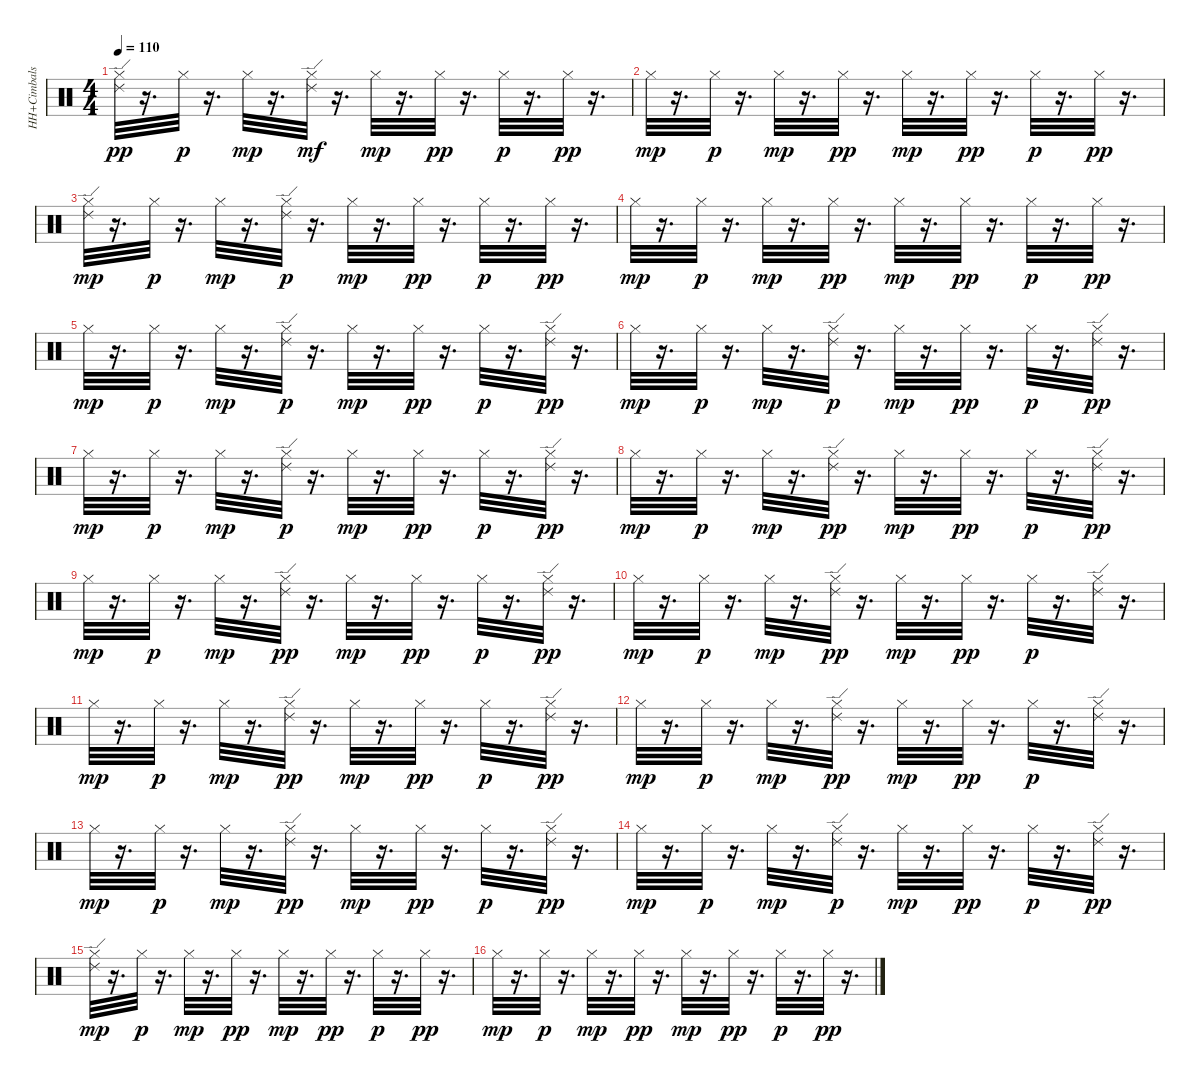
\track ("HH+Cimbals" "HH+Cimbals") {instrument percussion}
\staff {score}
\articulation defaults
\ts (4 4)
\tempo 110
\clef neutral
\ks c
("Hi-Hat (closed)" "Ride (edge) 2").32{dy pp} r.16{d} "Hi-Hat (closed)".32{dy p} r.16{d} "Hi-Hat (closed)".32{dy mp} r.16{d} ("Hi-Hat (closed)" "Ride (edge) 2").32{dy mf} r.16{d} "Hi-Hat (closed)".32{dy mp} r.16{d} "Hi-Hat (closed)".32{dy pp} r.16{d} "Hi-Hat (closed)".32{dy p} r.16{d} "Hi-Hat (closed)".32{dy pp} r.16{d} |
"Hi-Hat (closed)".32{dy mp} r.16{d} "Hi-Hat (closed)".32{dy p} r.16{d} "Hi-Hat (closed)".32{dy mp} r.16{d} "Hi-Hat (closed)".32{dy pp} r.16{d} "Hi-Hat (closed)".32{dy mp} r.16{d} "Hi-Hat (closed)".32{dy pp} r.16{d} "Hi-Hat (closed)".32{dy p} r.16{d} "Hi-Hat (closed)".32{dy pp} r.16{d} |
("Ride (edge) 2" "Hi-Hat (closed)").32{dy mp} r.16{d} "Hi-Hat (closed)".32{dy p} r.16{d} "Hi-Hat (closed)".32{dy mp} r.16{d} ("Hi-Hat (closed)" "Ride (edge) 2").32{dy p} r.16{d} "Hi-Hat (closed)".32{dy mp} r.16{d} "Hi-Hat (closed)".32{dy pp} r.16{d} "Hi-Hat (closed)".32{dy p} r.16{d} "Hi-Hat (closed)".32{dy pp} r.16{d} |
"Hi-Hat (closed)".32{dy mp} r.16{d} "Hi-Hat (closed)".32{dy p} r.16{d} "Hi-Hat (closed)".32{dy mp} r.16{d} "Hi-Hat (closed)".32{dy pp} r.16{d} "Hi-Hat (closed)".32{dy mp} r.16{d} "Hi-Hat (closed)".32{dy pp} r.16{d} "Hi-Hat (closed)".32{dy p} r.16{d} "Hi-Hat (closed)".32{dy pp} r.16{d} |
"Hi-Hat (closed)".32{dy mp} r.16{d} "Hi-Hat (closed)".32{dy p} r.16{d} "Hi-Hat (closed)".32{dy mp} r.16{d} ("Hi-Hat (closed)" "Ride (edge) 2").32{dy p} r.16{d} "Hi-Hat (closed)".32{dy mp} r.16{d} "Hi-Hat (closed)".32{dy pp} r.16{d} "Hi-Hat (closed)".32{dy p} r.16{d} ("Hi-Hat (closed)" "Ride (edge) 2").32{dy pp} r.16{d} |
"Hi-Hat (closed)".32{dy mp} r.16{d} "Hi-Hat (closed)".32{dy p} r.16{d} "Hi-Hat (closed)".32{dy mp} r.16{d} ("Hi-Hat (closed)" "Ride (edge) 2").32{dy p} r.16{d} "Hi-Hat (closed)".32{dy mp} r.16{d} "Hi-Hat (closed)".32{dy pp} r.16{d} "Hi-Hat (closed)".32{dy p} r.16{d} ("Hi-Hat (closed)" "Ride (edge) 2").32{dy pp} r.16{d} |
"Hi-Hat (closed)".32{dy mp} r.16{d} "Hi-Hat (closed)".32{dy p} r.16{d} "Hi-Hat (closed)".32{dy mp} r.16{d} ("Hi-Hat (closed)" "Ride (edge) 2").32{dy p} r.16{d} "Hi-Hat (closed)".32{dy mp} r.16{d} "Hi-Hat (closed)".32{dy pp} r.16{d} "Hi-Hat (closed)".32{dy p} r.16{d} ("Ride (edge) 2" "Hi-Hat (closed)").32{dy pp} r.16{d} |
"Hi-Hat (closed)".32{dy mp} r.16{d} "Hi-Hat (closed)".32{dy p} r.16{d} "Hi-Hat (closed)".32{dy mp} r.16{d} ("Hi-Hat (closed)" "Ride (edge) 2").32{dy pp} r.16{d} "Hi-Hat (closed)".32{dy mp} r.16{d} "Hi-Hat (closed)".32{dy pp} r.16{d} "Hi-Hat (closed)".32{dy p} r.16{d} ("Hi-Hat (closed)" "Ride (edge) 2").32{dy pp} r.16{d} |
"Hi-Hat (closed)".32{dy mp} r.16{d} "Hi-Hat (closed)".32{dy p} r.16{d} "Hi-Hat (closed)".32{dy mp} r.16{d} ("Hi-Hat (closed)" "Ride (edge) 2").32{dy pp} r.16{d} "Hi-Hat (closed)".32{dy mp} r.16{d} "Hi-Hat (closed)".32{dy pp} r.16{d} "Hi-Hat (closed)".32{dy p} r.16{d} ("Ride (edge) 2" "Hi-Hat (closed)").32{dy pp} r.16{d} |
"Hi-Hat (closed)".32{dy mp} r.16{d} "Hi-Hat (closed)".32{dy p} r.16{d} "Hi-Hat (closed)".32{dy mp} r.16{d} ("Ride (edge) 2" "Hi-Hat (closed)").32{dy pp} r.16{d} "Hi-Hat (closed)".32{dy mp} r.16{d} "Hi-Hat (closed)".32{dy pp} r.16{d} "Hi-Hat (closed)".32{dy p} r.16{d} ("Hi-Hat (closed)" "Ride (edge) 2").32 r.16{d} |
"Hi-Hat (closed)".32{dy mp} r.16{d} "Hi-Hat (closed)".32{dy p} r.16{d} "Hi-Hat (closed)".32{dy mp} r.16{d} ("Hi-Hat (closed)" "Ride (edge) 2").32{dy pp} r.16{d} "Hi-Hat (closed)".32{dy mp} r.16{d} "Hi-Hat (closed)".32{dy pp} r.16{d} "Hi-Hat (closed)".32{dy p} r.16{d} ("Ride (edge) 2" "Hi-Hat (closed)").32{dy pp} r.16{d} |
"Hi-Hat (closed)".32{dy mp} r.16{d} "Hi-Hat (closed)".32{dy p} r.16{d} "Hi-Hat (closed)".32{dy mp} r.16{d} ("Ride (edge) 2" "Hi-Hat (closed)").32{dy pp} r.16{d} "Hi-Hat (closed)".32{dy mp} r.16{d} "Hi-Hat (closed)".32{dy pp} r.16{d} "Hi-Hat (closed)".32{dy p} r.16{d} ("Hi-Hat (closed)" "Ride (edge) 2").32 r.16{d} |
"Hi-Hat (closed)".32{dy mp} r.16{d} "Hi-Hat (closed)".32{dy p} r.16{d} "Hi-Hat (closed)".32{dy mp} r.16{d} ("Ride (edge) 2" "Hi-Hat (closed)").32{dy pp} r.16{d} "Hi-Hat (closed)".32{dy mp} r.16{d} "Hi-Hat (closed)".32{dy pp} r.16{d} "Hi-Hat (closed)".32{dy p} r.16{d} ("Ride (edge) 2" "Hi-Hat (closed)").32{dy pp} r.16{d} |
"Hi-Hat (closed)".32{dy mp} r.16{d} "Hi-Hat (closed)".32{dy p} r.16{d} "Hi-Hat (closed)".32{dy mp} r.16{d} ("Hi-Hat (closed)" "Ride (edge) 2").32{dy p} r.16{d} "Hi-Hat (closed)".32{dy mp} r.16{d} "Hi-Hat (closed)".32{dy pp} r.16{d} "Hi-Hat (closed)".32{dy p} r.16{d} ("Ride (edge) 2" "Hi-Hat (closed)").32{dy pp} r.16{d} |
("Hi-Hat (closed)" "Ride (edge) 2").32{dy mp} r.16{d} "Hi-Hat (closed)".32{dy p} r.16{d} "Hi-Hat (closed)".32{dy mp} r.16{d} "Hi-Hat (closed)".32{dy pp} r.16{d} "Hi-Hat (closed)".32{dy mp} r.16{d} "Hi-Hat (closed)".32{dy pp} r.16{d} "Hi-Hat (closed)".32{dy p} r.16{d} "Hi-Hat (closed)".32{dy pp} r.16{d} |
"Hi-Hat (closed)".32{dy mp} r.16{d} "Hi-Hat (closed)".32{dy p} r.16{d} "Hi-Hat (closed)".32{dy mp} r.16{d} "Hi-Hat (closed)".32{dy pp} r.16{d} "Hi-Hat (closed)".32{dy mp} r.16{d} "Hi-Hat (closed)".32{dy pp} r.16{d} "Hi-Hat (closed)".32{dy p} r.16{d} "Hi-Hat (closed)".32{dy pp} r.16{d}
